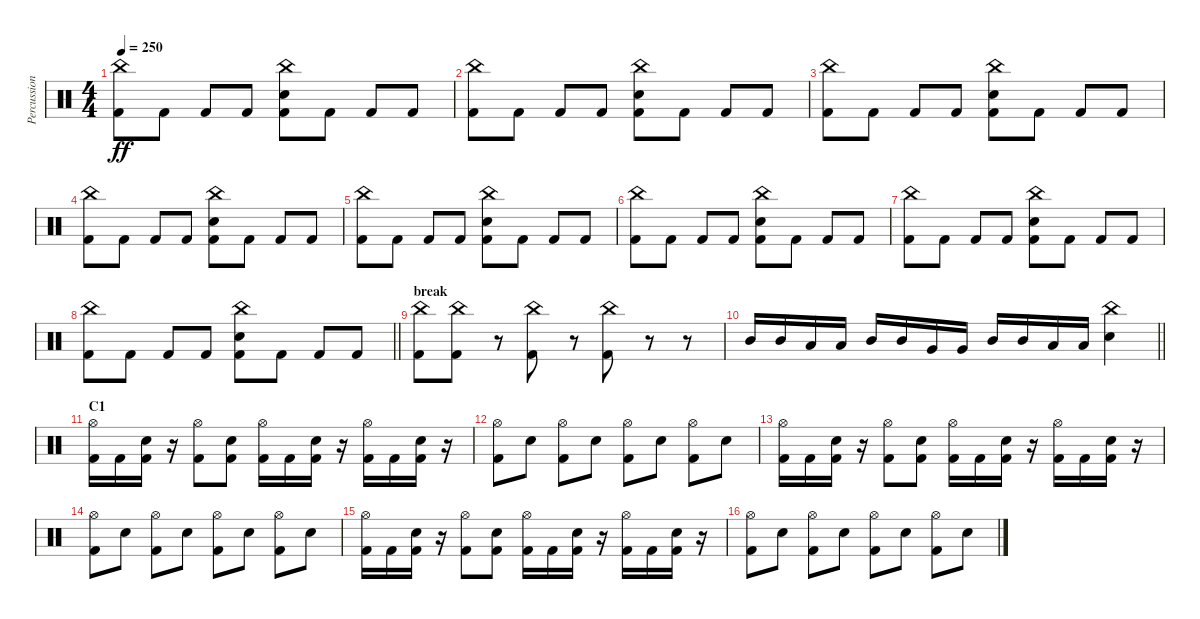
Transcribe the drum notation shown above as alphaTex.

\track ("Percussions" "Percussion") {instrument percussion}
\staff {score}
\articulation defaults
\ts (4 4)
\tempo 250
\clef neutral
\ks c
("China (hit)" "Kick (hit) 2").8{dy ff} "Kick (hit) 2".8 "Kick (hit) 2".8 "Kick (hit) 2".8 ("China (hit)" "Electric Snare (hit)" "Kick (hit) 2").8 "Kick (hit) 2".8 "Kick (hit) 2".8 "Kick (hit) 2".8 |
("China (hit)" "Kick (hit) 2").8 "Kick (hit) 2".8 "Kick (hit) 2".8 "Kick (hit) 2".8 ("China (hit)" "Electric Snare (hit)" "Kick (hit) 2").8 "Kick (hit) 2".8 "Kick (hit) 2".8 "Kick (hit) 2".8 |
("China (hit)" "Kick (hit) 2").8 "Kick (hit) 2".8 "Kick (hit) 2".8 "Kick (hit) 2".8 ("China (hit)" "Electric Snare (hit)" "Kick (hit) 2").8 "Kick (hit) 2".8 "Kick (hit) 2".8 "Kick (hit) 2".8 |
("China (hit)" "Kick (hit) 2").8 "Kick (hit) 2".8 "Kick (hit) 2".8 "Kick (hit) 2".8 ("China (hit)" "Electric Snare (hit)" "Kick (hit) 2").8 "Kick (hit) 2".8 "Kick (hit) 2".8 "Kick (hit) 2".8 |
("China (hit)" "Kick (hit) 2").8 "Kick (hit) 2".8 "Kick (hit) 2".8 "Kick (hit) 2".8 ("China (hit)" "Electric Snare (hit)" "Kick (hit) 2").8 "Kick (hit) 2".8 "Kick (hit) 2".8 "Kick (hit) 2".8 |
("China (hit)" "Kick (hit) 2").8 "Kick (hit) 2".8 "Kick (hit) 2".8 "Kick (hit) 2".8 ("China (hit)" "Electric Snare (hit)" "Kick (hit) 2").8 "Kick (hit) 2".8 "Kick (hit) 2".8 "Kick (hit) 2".8 |
("China (hit)" "Kick (hit) 2").8 "Kick (hit) 2".8 "Kick (hit) 2".8 "Kick (hit) 2".8 ("China (hit)" "Electric Snare (hit)" "Kick (hit) 2").8 "Kick (hit) 2".8 "Kick (hit) 2".8 "Kick (hit) 2".8 |
\barLineRight lightlight
("China (hit)" "Kick (hit) 2").8 "Kick (hit) 2".8 "Kick (hit) 2".8 "Kick (hit) 2".8 ("China (hit)" "Electric Snare (hit)" "Kick (hit) 2").8 "Kick (hit) 2".8 "Kick (hit) 2".8 "Kick (hit) 2".8 |
\section ("" "break")
("China (hit)" "Kick (hit) 2").8 ("China (hit)" "Kick (hit) 2").8 r.8 ("China (hit)" "Kick (hit) 2").8 r.8 ("China (hit)" "Kick (hit) 2").8 r.8 r.8 |
\barLineRight lightlight "Mid Tom (hit)".16 "Mid Tom (hit)".16 "Low Tom (hit)".16 "Low Tom (hit)".16 "Mid Tom (hit)".16 "Mid Tom (hit)".16 "Very Low Tom (hit)".16 "Very Low Tom (hit)".16 "Mid Tom (hit)".16 "Mid Tom (hit)".16 "Low Floor Tom (hit)".16 "Low Floor Tom (hit)".16
("China (hit)" "Electric Snare (hit)").4 |
\section ("" "C1")
("Hi-Hat (open)" "Kick (hit) 2").16 "Kick (hit) 2".16 ("Electric Snare (hit)" "Kick (hit) 2").16 r.16 ("Hi-Hat (open)" "Kick (hit) 2").8 ("Electric Snare (hit)" "Kick (hit) 2").8 ("Hi-Hat (open)" "Kick (hit) 2").16 "Kick (hit) 2".16 ("Electric Snare (hit)" "Kick (hit) 2").16 r.16 ("Hi-Hat (open)" "Kick (hit) 2").16 "Kick (hit) 2".16 ("Electric Snare (hit)" "Kick (hit) 2").16 r.16 |
("Hi-Hat (open)" "Kick (hit) 2").8 "Electric Snare (hit)".8 ("Hi-Hat (open)" "Kick (hit) 2").8 "Electric Snare (hit)".8 ("Hi-Hat (open)" "Kick (hit) 2").8 "Electric Snare (hit)".8 ("Hi-Hat (open)" "Kick (hit) 2").8 "Electric Snare (hit)".8 |
("Hi-Hat (open)" "Kick (hit) 2").16 "Kick (hit) 2".16 ("Electric Snare (hit)" "Kick (hit) 2").16 r.16 ("Hi-Hat (open)" "Kick (hit) 2").8 ("Electric Snare (hit)" "Kick (hit) 2").8 ("Hi-Hat (open)" "Kick (hit) 2").16 "Kick (hit) 2".16 ("Electric Snare (hit)" "Kick (hit) 2").16 r.16 ("Hi-Hat (open)" "Kick (hit) 2").16 "Kick (hit) 2".16 ("Electric Snare (hit)" "Kick (hit) 2").16 r.16 |
("Hi-Hat (open)" "Kick (hit) 2").8 "Electric Snare (hit)".8 ("Hi-Hat (open)" "Kick (hit) 2").8 "Electric Snare (hit)".8 ("Hi-Hat (open)" "Kick (hit) 2").8 "Electric Snare (hit)".8 ("Hi-Hat (open)" "Kick (hit) 2").8 "Electric Snare (hit)".8 |
("Hi-Hat (open)" "Kick (hit) 2").16 "Kick (hit) 2".16 ("Electric Snare (hit)" "Kick (hit) 2").16 r.16 ("Hi-Hat (open)" "Kick (hit) 2").8 ("Electric Snare (hit)" "Kick (hit) 2").8 ("Hi-Hat (open)" "Kick (hit) 2").16 "Kick (hit) 2".16 ("Electric Snare (hit)" "Kick (hit) 2").16 r.16 ("Hi-Hat (open)" "Kick (hit) 2").16 "Kick (hit) 2".16 ("Electric Snare (hit)" "Kick (hit) 2").16 r.16 |
("Hi-Hat (open)" "Kick (hit) 2").8 "Electric Snare (hit)".8 ("Hi-Hat (open)" "Kick (hit) 2").8 "Electric Snare (hit)".8 ("Hi-Hat (open)" "Kick (hit) 2").8 "Electric Snare (hit)".8 ("Hi-Hat (open)" "Kick (hit) 2").8 "Electric Snare (hit)".8
